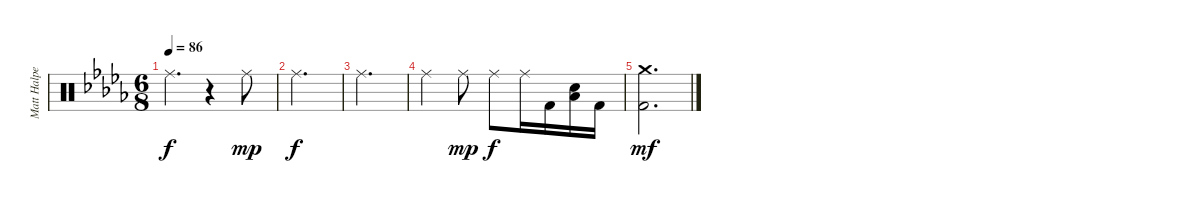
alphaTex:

\track ("Matt Halpern - Drums" "Matt Halpe") {instrument percussion}
\staff {score}
\articulation defaults
\ts (6 8)
\tempo 86
\clef neutral
\ks bbminor "Ride (middle)".4{d dy f}
r.4 "Ride (middle)".8{dy mp} |
"Ride (middle)".2{d dy f} |
"Ride (middle)".2{d} |
"Ride (middle)".4 "Ride (middle)".8{dy mp} "Ride (middle)".8{dy f} "Ride (middle)".16 "Kick (hit) 2".16 ("Snare (hit) 2" "Low Floor Tom (hit)").16{bu 480} "Kick (hit) 2".16 |
("Crash medium (hit)" "Kick (hit) 2").2{d dy mf}
